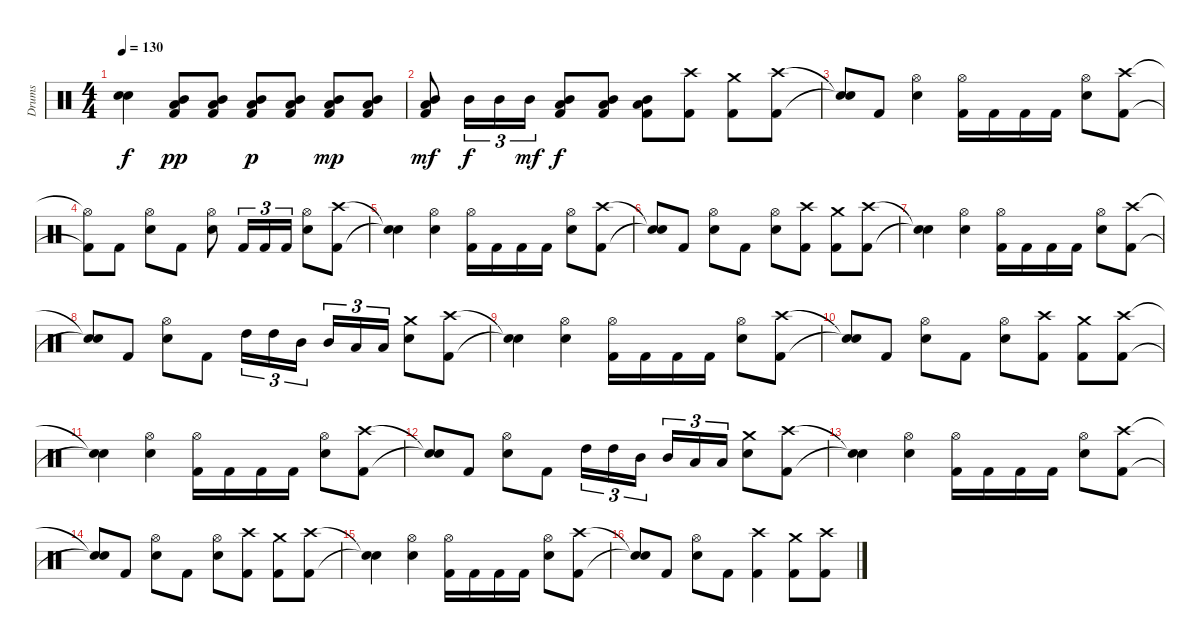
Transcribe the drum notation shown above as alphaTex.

\track ("Drums" "Drums") {instrument percussion}
\staff {score}
\articulation defaults
\ts (4 4)
\tempo 130
\clef neutral
\ks c
("Snare (hit)"{t} "Snare (hit)"{t}).4{dy f} ("Mid Tom (hit)" "Low Tom (hit)" "Kick (hit) 2").8{dy pp} ("Mid Tom (hit)" "Low Tom (hit)" "Kick (hit) 2").8 ("Mid Tom (hit)" "Low Tom (hit)" "Kick (hit) 2").8{dy p} ("Mid Tom (hit)" "Low Tom (hit)" "Kick (hit) 2").8 ("Mid Tom (hit)" "Low Tom (hit)" "Kick (hit) 2").8{dy mp} ("Mid Tom (hit)" "Low Tom (hit)" "Kick (hit) 2").8 |
("Mid Tom (hit)" "Low Tom (hit)" "Kick (hit) 2").8{dy mf} "Mid Tom (hit)".16{tu (3 2) dy f} "Mid Tom (hit)".16{tu (3 2)} "Mid Tom (hit)".16{tu (3 2) dy mf} ("Mid Tom (hit)" "Low Tom (hit)" "Kick (hit) 2").8{dy f} ("Mid Tom (hit)" "Low Tom (hit)" "Kick (hit) 2").8 ("Mid Tom (hit)" "Low Tom (hit)" "Kick (hit) 2").8 ("Crash high (hit)" "Kick (hit) 2").8 ("Crash medium (hit)" "Kick (hit) 2").8 ("Crash high (hit)" "Kick (hit) 2").8 |
("Snare (hit)"{t} "Snare (hit)"{t}).8 "Kick (hit) 2".8 ("Snare (hit) 2" "Hi-Hat (open)").4 ("Kick (hit) 2" "Hi-Hat (open)").16 "Kick (hit) 2".16 "Kick (hit) 2".16 "Kick (hit) 2".16 ("Snare (hit) 2" "Hi-Hat (open)").8 ("Kick (hit) 2" "Crash high (hit)").8 |
("Kick (hit) 2"{t} "Hi-Hat (open)"{t}).8 "Kick (hit) 2".8 ("Snare (hit) 2" "Hi-Hat (open)").8 "Kick (hit) 2".8 ("Snare (hit) 2" "Hi-Hat (open)").8 "Kick (hit) 2".16{tu (3 2)} "Kick (hit) 2".16{tu (3 2)} "Kick (hit) 2".16{tu (3 2)} ("Snare (hit) 2" "Hi-Hat (open)").8 ("Kick (hit) 2" "Crash high (hit)").8 |
("Snare (hit)"{t} "Snare (hit)"{t}).4 ("Snare (hit) 2" "Hi-Hat (open)").4 ("Kick (hit) 2" "Hi-Hat (open)").16 "Kick (hit) 2".16 "Kick (hit) 2".16 "Kick (hit) 2".16 ("Snare (hit) 2" "Hi-Hat (open)").8 ("Kick (hit) 2" "Crash high (hit)").8 |
("Snare (hit)"{t} "Snare (hit)"{t}).8 "Kick (hit) 2".8 ("Snare (hit) 2" "Hi-Hat (open)").8 "Kick (hit) 2".8 ("Snare (hit) 2" "Hi-Hat (open)").8 ("Crash high (hit)" "Kick (hit) 2").8 ("Crash medium (hit)" "Kick (hit) 2").8 ("Crash high (hit)" "Kick (hit) 2").8 |
("Snare (hit)"{t} "Snare (hit)"{t}).4 ("Snare (hit) 2" "Hi-Hat (open)").4 ("Kick (hit) 2" "Hi-Hat (open)").16 "Kick (hit) 2".16 "Kick (hit) 2".16 "Kick (hit) 2".16 ("Snare (hit) 2" "Hi-Hat (open)").8 ("Kick (hit) 2" "Crash high (hit)").8 |
("Snare (hit)"{t} "Snare (hit)"{t}).8 "Kick (hit) 2".8 ("Snare (hit) 2" "Hi-Hat (open)").8 "Kick (hit) 2".8 "High Tom (hit)".16{tu (3 2)} "High Tom (hit)".16{tu (3 2)} "Mid Tom (hit)".16{tu (3 2) beam splitsecondary} "Mid Tom (hit)".16{tu (3 2)} "Low Tom (hit)".16{tu (3 2)} "Low Tom (hit)".16{tu (3 2)} ("Snare (hit) 2" "Crash medium (hit)").8 ("Kick (hit) 2" "Crash high (hit)").8 |
("Snare (hit)"{t} "Snare (hit)"{t}).4 ("Snare (hit) 2" "Hi-Hat (open)").4 ("Kick (hit) 2" "Hi-Hat (open)").16 "Kick (hit) 2".16 "Kick (hit) 2".16 "Kick (hit) 2".16 ("Snare (hit) 2" "Hi-Hat (open)").8 ("Kick (hit) 2" "Crash high (hit)").8 |
("Snare (hit)"{t} "Snare (hit)"{t}).8 "Kick (hit) 2".8 ("Snare (hit) 2" "Hi-Hat (open)").8 "Kick (hit) 2".8 ("Snare (hit) 2" "Hi-Hat (open)").8 ("Crash high (hit)" "Kick (hit) 2").8 ("Crash medium (hit)" "Kick (hit) 2").8 ("Crash high (hit)" "Kick (hit) 2").8 |
("Snare (hit)"{t} "Snare (hit)"{t}).4 ("Snare (hit) 2" "Hi-Hat (open)").4 ("Kick (hit) 2" "Hi-Hat (open)").16 "Kick (hit) 2".16 "Kick (hit) 2".16 "Kick (hit) 2".16 ("Snare (hit) 2" "Hi-Hat (open)").8 ("Kick (hit) 2" "Crash high (hit)").8 |
("Snare (hit)"{t} "Snare (hit)"{t}).8 "Kick (hit) 2".8 ("Snare (hit) 2" "Hi-Hat (open)").8 "Kick (hit) 2".8 "High Tom (hit)".16{tu (3 2)} "High Tom (hit)".16{tu (3 2)} "Mid Tom (hit)".16{tu (3 2) beam splitsecondary} "Mid Tom (hit)".16{tu (3 2)} "Low Tom (hit)".16{tu (3 2)} "Low Tom (hit)".16{tu (3 2)} ("Snare (hit) 2" "Crash medium (hit)").8 ("Kick (hit) 2" "Crash high (hit)").8 |
("Snare (hit)"{t} "Snare (hit)"{t}).4 ("Snare (hit) 2" "Hi-Hat (open)").4 ("Kick (hit) 2" "Hi-Hat (open)").16 "Kick (hit) 2".16 "Kick (hit) 2".16 "Kick (hit) 2".16 ("Snare (hit) 2" "Hi-Hat (open)").8 ("Kick (hit) 2" "Crash high (hit)").8 |
("Snare (hit)"{t} "Snare (hit)"{t}).8 "Kick (hit) 2".8 ("Snare (hit) 2" "Hi-Hat (open)").8 "Kick (hit) 2".8 ("Snare (hit) 2" "Hi-Hat (open)").8 ("Crash high (hit)" "Kick (hit) 2").8 ("Crash medium (hit)" "Kick (hit) 2").8 ("Crash high (hit)" "Kick (hit) 2").8 |
("Snare (hit)"{t} "Snare (hit)"{t}).4 ("Snare (hit) 2" "Hi-Hat (open)").4 ("Kick (hit) 2" "Hi-Hat (open)").16 "Kick (hit) 2".16 "Kick (hit) 2".16 "Kick (hit) 2".16 ("Snare (hit) 2" "Hi-Hat (open)").8 ("Kick (hit) 2" "Crash high (hit)").8 |
("Snare (hit)"{t} "Snare (hit)"{t}).8 "Kick (hit) 2".8 ("Snare (hit) 2" "Hi-Hat (open)").8 "Kick (hit) 2".8 ("Kick (hit) 2" "Crash high (hit)").4 ("Kick (hit) 2" "Crash medium (hit)").8 ("Kick (hit) 2" "Crash high (hit)").8
